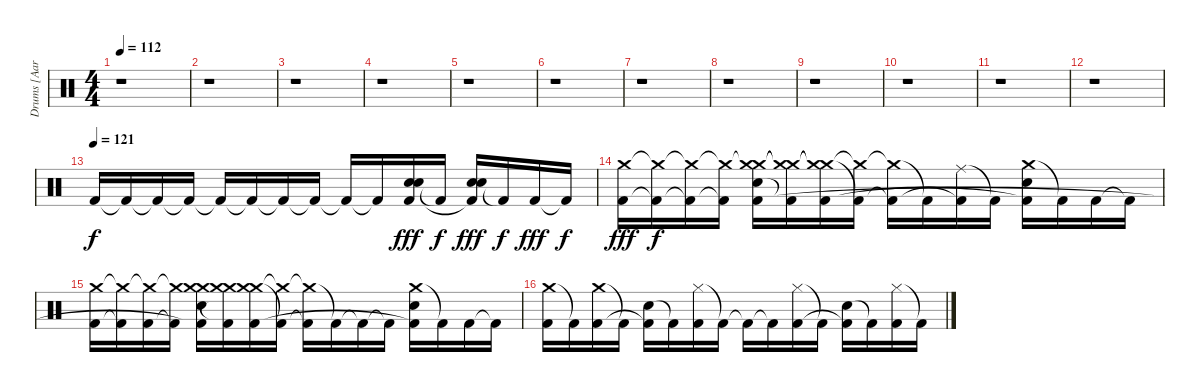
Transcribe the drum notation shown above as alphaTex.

\track ("Drums [Aaron Harris]" "Drums [Aar") {instrument percussion}
\staff {score}
\articulation defaults
\ts (4 4)
\tempo 112
\clef neutral
\ks c
r.1{dy f} |
r.1 |
r.1 |
r.1 |
r.1 |
r.1 |
r.1 |
r.1 |
r.1 |
r.1 |
r.1 |
r.1 |
\tempo (121)
"Kick (hit) 2".16 "Kick (hit) 2"{t}.16 "Kick (hit) 2"{t}.16 "Kick (hit) 2"{t}.16 "Kick (hit) 2"{t}.16 "Kick (hit) 2"{t}.16 "Kick (hit) 2"{t}.16 "Kick (hit) 2"{t}.16 "Kick (hit) 2"{t}.16 "Kick (hit) 2"{t}.16 ("Electric Snare (hit)" "Electric Snare (hit)" "Kick (hit) 2").16{dy fff} "Kick (hit) 2"{t}.16{dy f} ("Electric Snare (hit)" "Electric Snare (hit)" "Kick (hit) 2"{t}).16{dy fff} "Kick (hit) 2"{t}.16{dy f} "Kick (hit) 2".16{dy fff} "Kick (hit) 2"{t}.16{dy f} |
("Crash medium (hit)" "Kick (hit) 2").16{dy fff} ("Crash medium (hit)"{t} "Kick (hit) 2"{t}).16{dy f} ("Crash medium (hit)"{t} "Kick (hit) 2"{t}).16 ("Crash medium (hit)"{t} "Kick (hit) 2"{t}).16 ("Crash medium (hit)"{t} "Crash medium (hit)" "Electric Snare (hit)" "Kick (hit) 2").16 ("Crash medium (hit)"{t} "Crash medium (hit)"{t} "Kick (hit) 2"{t}).16 ("Crash medium (hit)"{t} "Crash medium (hit)"{t} "Kick (hit) 2").16 ("Crash medium (hit)"{t} "Kick (hit) 2"{t}).16 ("Crash medium (hit)"{t} "Kick (hit) 2"{t}).16 "Kick (hit) 2"{t}.16 ("Ride (middle)" "Kick (hit) 2"{t}).16 "Kick (hit) 2"{t}.16 ("Crash medium (hit)" "Electric Snare (hit)" "Kick (hit) 2"{t}).16 "Kick (hit) 2"{t}.16 "Kick (hit) 2".16 "Kick (hit) 2"{t}.16 |
("Crash medium (hit)" "Kick (hit) 2").16 ("Crash medium (hit)"{t} "Kick (hit) 2"{t}).16 ("Crash medium (hit)"{t} "Kick (hit) 2").16 ("Crash medium (hit)"{t} "Kick (hit) 2"{t}).16 ("Crash medium (hit)"{t} "Crash medium (hit)" "Electric Snare (hit)" "Kick (hit) 2"{t}).16 ("Crash medium (hit)"{t} "Crash medium (hit)"{t} "Kick (hit) 2"{t}).16 ("Crash medium (hit)"{t} "Crash medium (hit)"{t} "Kick (hit) 2").16 ("Crash medium (hit)"{t} "Kick (hit) 2"{t}).16 ("Crash medium (hit)"{t} "Kick (hit) 2"{t}).16 "Kick (hit) 2"{t}.16 "Kick (hit) 2"{t}.16 "Kick (hit) 2"{t}.16 ("Crash medium (hit)" "Electric Snare (hit)" "Kick (hit) 2"{t}).16 "Kick (hit) 2"{t}.16 "Kick (hit) 2".16 "Kick (hit) 2"{t}.16 |
("Crash medium (hit)" "Kick (hit) 2").16 "Kick (hit) 2"{t}.16 ("Crash medium (hit)" "Kick (hit) 2").16 "Kick (hit) 2"{t}.16 ("Electric Snare (hit)" "Kick (hit) 2"{t}).16 "Kick (hit) 2"{t}.16 ("Hi-Hat (closed)" "Kick (hit) 2").16 "Kick (hit) 2"{t}.16 "Kick (hit) 2"{t}.16 "Kick (hit) 2"{t}.16 ("Hi-Hat (closed)" "Kick (hit) 2").16 "Kick (hit) 2"{t}.16 ("Electric Snare (hit)" "Kick (hit) 2"{t}).16 "Kick (hit) 2"{t}.16 ("Hi-Hat (closed)" "Kick (hit) 2").16 "Kick (hit) 2"{t}.16
